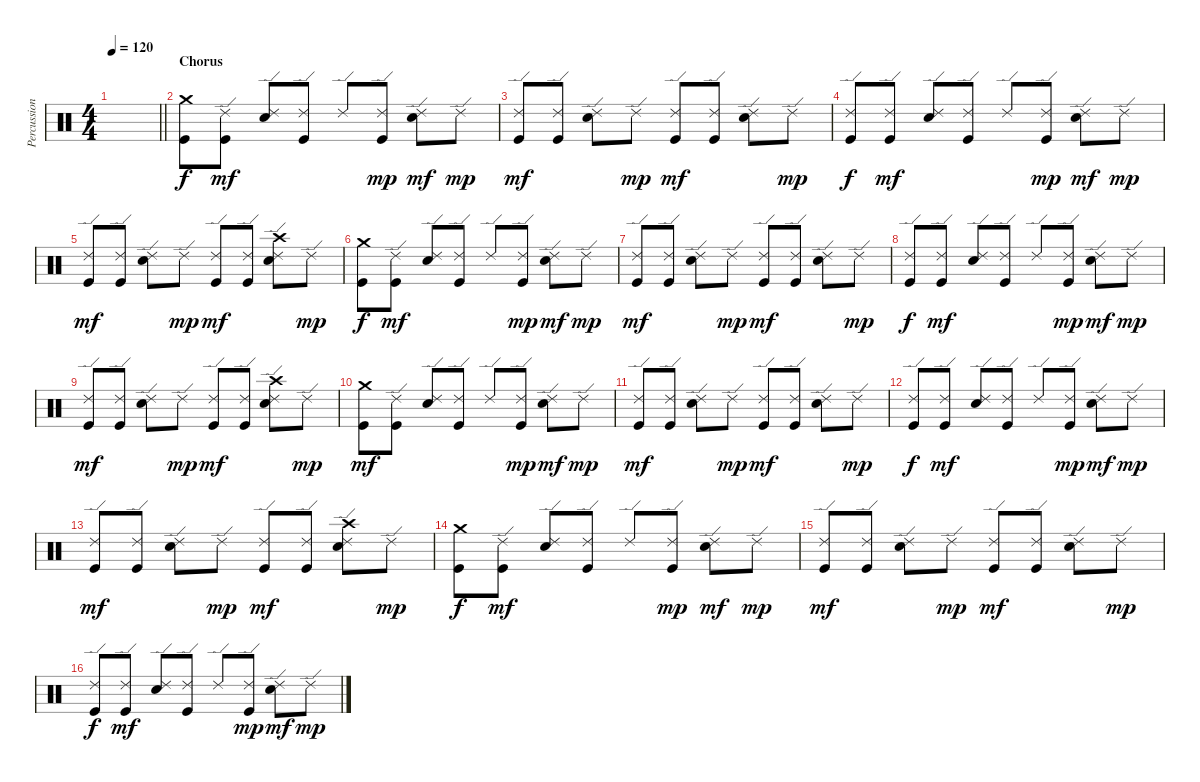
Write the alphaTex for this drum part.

\track ("Percussion" "Percussion") {instrument percussion}
\staff {score}
\articulation defaults
\ts (4 4)
\tempo 120
\clef neutral
\barLineRight lightlight
\ks c
|
\section ("" "Chorus")
("Crash medium (hit)" "Kick (hit)").8{dy f} ("Ride (edge) 2" "Kick (hit)").8{dy mf} ("Ride (edge) 2" "Electric Snare (hit)").8 ("Ride (edge) 2" "Kick (hit)").8 "Ride (edge) 2".8 ("Ride (edge) 2" "Kick (hit)").8{dy mp} ("Ride (edge) 2" "Electric Snare (hit)").8{dy mf} "Ride (edge) 2".8{dy mp} |
("Ride (edge) 2" "Kick (hit)").8{dy mf} ("Ride (edge) 2" "Kick (hit)").8 ("Ride (edge) 2" "Electric Snare (hit)").8 "Ride (edge) 2".8{dy mp} ("Ride (edge) 2" "Kick (hit)").8{dy mf} ("Ride (edge) 2" "Kick (hit)").8 ("Ride (edge) 2" "Electric Snare (hit)").8 "Ride (edge) 2".8{dy mp} |
("Ride (edge) 2" "Kick (hit)").8{dy f} ("Ride (edge) 2" "Kick (hit)").8{dy mf} ("Ride (edge) 2" "Electric Snare (hit)").8 ("Ride (edge) 2" "Kick (hit)").8 "Ride (edge) 2".8 ("Ride (edge) 2" "Kick (hit)").8{dy mp} ("Ride (edge) 2" "Electric Snare (hit)").8{dy mf} "Ride (edge) 2".8{dy mp} |
("Ride (edge) 2" "Kick (hit)").8{dy mf} ("Ride (edge) 2" "Kick (hit)").8 ("Ride (edge) 2" "Electric Snare (hit)").8 "Ride (edge) 2".8{dy mp} ("Ride (edge) 2" "Kick (hit)").8{dy mf} ("Ride (edge) 2" "Kick (hit)").8 ("Ride (edge) 2" "Crash high (hit)" "Electric Snare (hit)").8 "Ride (edge) 2".8{dy mp} |
("Crash medium (hit)" "Kick (hit)").8{dy f} ("Ride (edge) 2" "Kick (hit)").8{dy mf} ("Ride (edge) 2" "Electric Snare (hit)").8 ("Ride (edge) 2" "Kick (hit)").8 "Ride (edge) 2".8 ("Ride (edge) 2" "Kick (hit)").8{dy mp} ("Ride (edge) 2" "Electric Snare (hit)").8{dy mf} "Ride (edge) 2".8{dy mp} |
("Ride (edge) 2" "Kick (hit)").8{dy mf} ("Ride (edge) 2" "Kick (hit)").8 ("Ride (edge) 2" "Electric Snare (hit)").8 "Ride (edge) 2".8{dy mp} ("Ride (edge) 2" "Kick (hit)").8{dy mf} ("Ride (edge) 2" "Kick (hit)").8 ("Ride (edge) 2" "Electric Snare (hit)").8 "Ride (edge) 2".8{dy mp} |
("Ride (edge) 2" "Kick (hit)").8{dy f} ("Ride (edge) 2" "Kick (hit)").8{dy mf} ("Ride (edge) 2" "Electric Snare (hit)").8 ("Ride (edge) 2" "Kick (hit)").8 "Ride (edge) 2".8 ("Ride (edge) 2" "Kick (hit)").8{dy mp} ("Ride (edge) 2" "Electric Snare (hit)").8{dy mf} "Ride (edge) 2".8{dy mp} |
("Ride (edge) 2" "Kick (hit)").8{dy mf} ("Ride (edge) 2" "Kick (hit)").8 ("Ride (edge) 2" "Electric Snare (hit)").8 "Ride (edge) 2".8{dy mp} ("Ride (edge) 2" "Kick (hit)").8{dy mf} ("Ride (edge) 2" "Kick (hit)").8 ("Ride (edge) 2" "Crash high (hit)" "Electric Snare (hit)").8 "Ride (edge) 2".8{dy mp} |
("Crash medium (hit)" "Kick (hit)").8{dy mf} ("Ride (edge) 2" "Kick (hit)").8 ("Ride (edge) 2" "Electric Snare (hit)").8 ("Ride (edge) 2" "Kick (hit)").8 "Ride (edge) 2".8 ("Ride (edge) 2" "Kick (hit)").8{dy mp} ("Ride (edge) 2" "Electric Snare (hit)").8{dy mf} "Ride (edge) 2".8{dy mp} |
("Ride (edge) 2" "Kick (hit)").8{dy mf} ("Ride (edge) 2" "Kick (hit)").8 ("Ride (edge) 2" "Electric Snare (hit)").8 "Ride (edge) 2".8{dy mp} ("Ride (edge) 2" "Kick (hit)").8{dy mf} ("Ride (edge) 2" "Kick (hit)").8 ("Ride (edge) 2" "Electric Snare (hit)").8 "Ride (edge) 2".8{dy mp} |
("Ride (edge) 2" "Kick (hit)").8{dy f} ("Ride (edge) 2" "Kick (hit)").8{dy mf} ("Ride (edge) 2" "Electric Snare (hit)").8 ("Ride (edge) 2" "Kick (hit)").8 "Ride (edge) 2".8 ("Ride (edge) 2" "Kick (hit)").8{dy mp} ("Ride (edge) 2" "Electric Snare (hit)").8{dy mf} "Ride (edge) 2".8{dy mp} |
("Ride (edge) 2" "Kick (hit)").8{dy mf} ("Ride (edge) 2" "Kick (hit)").8 ("Ride (edge) 2" "Electric Snare (hit)").8 "Ride (edge) 2".8{dy mp} ("Ride (edge) 2" "Kick (hit)").8{dy mf} ("Ride (edge) 2" "Kick (hit)").8 ("Ride (edge) 2" "Crash high (hit)" "Electric Snare (hit)").8 "Ride (edge) 2".8{dy mp} |
("Crash medium (hit)" "Kick (hit)").8{dy f} ("Ride (edge) 2" "Kick (hit)").8{dy mf} ("Ride (edge) 2" "Electric Snare (hit)").8 ("Ride (edge) 2" "Kick (hit)").8 "Ride (edge) 2".8 ("Ride (edge) 2" "Kick (hit)").8{dy mp} ("Ride (edge) 2" "Electric Snare (hit)").8{dy mf} "Ride (edge) 2".8{dy mp} |
("Ride (edge) 2" "Kick (hit)").8{dy mf} ("Ride (edge) 2" "Kick (hit)").8 ("Ride (edge) 2" "Electric Snare (hit)").8 "Ride (edge) 2".8{dy mp} ("Ride (edge) 2" "Kick (hit)").8{dy mf} ("Ride (edge) 2" "Kick (hit)").8 ("Ride (edge) 2" "Electric Snare (hit)").8 "Ride (edge) 2".8{dy mp} |
("Ride (edge) 2" "Kick (hit)").8{dy f} ("Ride (edge) 2" "Kick (hit)").8{dy mf} ("Ride (edge) 2" "Electric Snare (hit)").8 ("Ride (edge) 2" "Kick (hit)").8 "Ride (edge) 2".8 ("Ride (edge) 2" "Kick (hit)").8{dy mp} ("Ride (edge) 2" "Electric Snare (hit)").8{dy mf} "Ride (edge) 2".8{dy mp}
